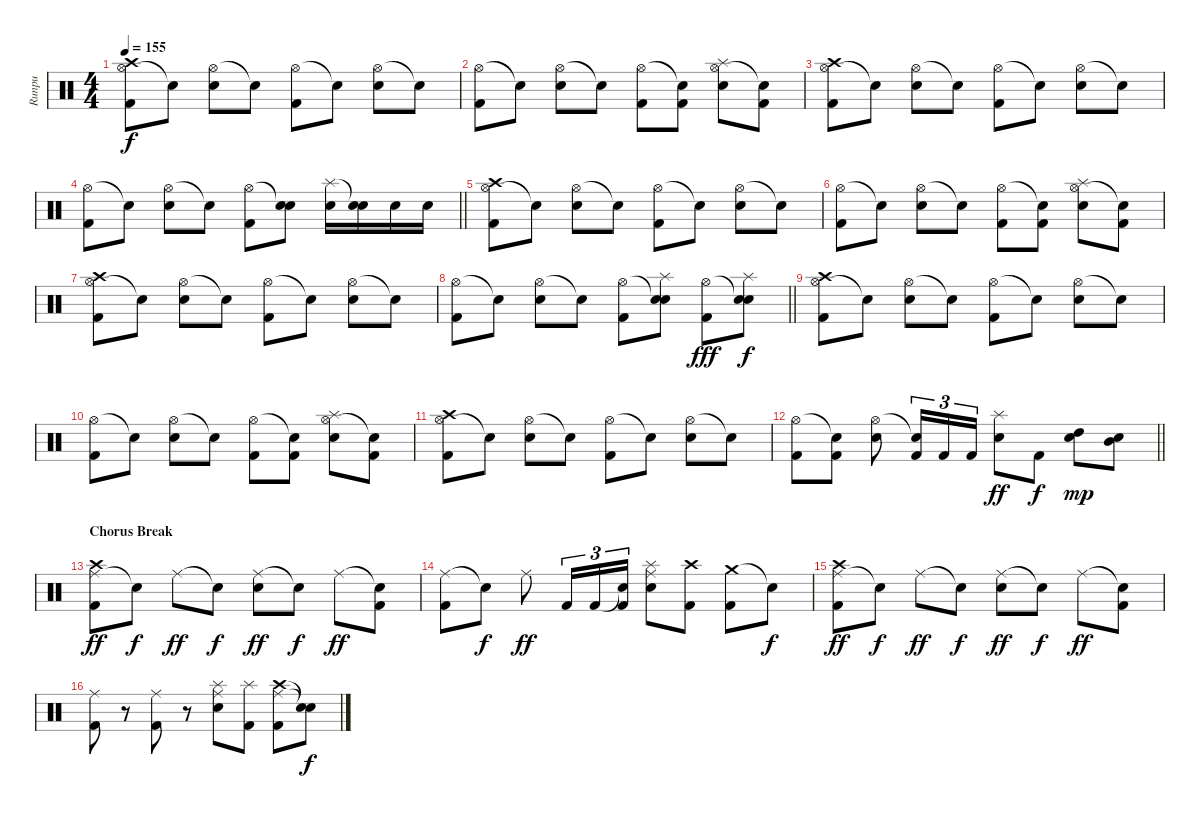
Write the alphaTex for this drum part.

\track ("Runpu" "Runpu") {instrument percussion}
\staff {score}
\articulation defaults
\ts (4 4)
\tempo 155
\clef neutral
\ks c
("Hi-Hat (open)" "Crash high (hit)" "Kick (hit) 2").8{dy f} "Snare (hit)"{t}.8 ("Hi-Hat (open)" "Snare (hit) 2").8 "Snare (hit)"{t}.8 ("Hi-Hat (open)" "Kick (hit) 2").8 "Snare (hit)"{t}.8 ("Hi-Hat (open)" "Snare (hit) 2").8 "Snare (hit)"{t}.8 |
("Hi-Hat (open)" "Kick (hit) 2").8 "Snare (hit)"{t}.8 ("Hi-Hat (open)" "Snare (hit) 2").8 "Snare (hit)"{t}.8 ("Hi-Hat (open)" "Kick (hit) 2").8 ("Snare (hit)"{t} "Kick (hit) 2").8 ("Hi-Hat (open)" "Splash (hit)" "Snare (hit) 2").8 ("Snare (hit)"{t} "Kick (hit) 2").8 |
("Hi-Hat (open)" "Crash high (hit)" "Kick (hit) 2").8 "Snare (hit)"{t}.8 ("Hi-Hat (open)" "Snare (hit) 2").8 "Snare (hit)"{t}.8 ("Hi-Hat (open)" "Kick (hit) 2").8 "Snare (hit)"{t}.8 ("Hi-Hat (open)" "Snare (hit) 2").8 "Snare (hit)"{t}.8 |
\barLineRight lightlight
("Hi-Hat (open)" "Kick (hit) 2").8 "Snare (hit)"{t}.8 ("Hi-Hat (open)" "Snare (hit) 2").8 "Snare (hit)"{t}.8 ("Hi-Hat (open)" "Kick (hit) 2").8 ("Snare (hit)"{t} "Snare (hit) 2").8 ("Splash (hit)" "Snare (hit) 2").16 ("Snare (hit)"{t} "Snare (hit) 2").16 "Snare (hit) 2".16 "Snare (hit) 2".16 |
("Hi-Hat (open)" "Crash high (hit)" "Kick (hit) 2").8 "Snare (hit)"{t}.8 ("Hi-Hat (open)" "Snare (hit) 2").8 "Snare (hit)"{t}.8 ("Hi-Hat (open)" "Kick (hit) 2").8 "Snare (hit)"{t}.8 ("Hi-Hat (open)" "Snare (hit) 2").8 "Snare (hit)"{t}.8 |
("Hi-Hat (open)" "Kick (hit) 2").8 "Snare (hit)"{t}.8 ("Hi-Hat (open)" "Snare (hit) 2").8 "Snare (hit)"{t}.8 ("Hi-Hat (open)" "Kick (hit) 2").8 ("Snare (hit)"{t} "Kick (hit) 2").8 ("Hi-Hat (open)" "Splash (hit)" "Snare (hit) 2").8 ("Snare (hit)"{t} "Kick (hit) 2").8 |
("Hi-Hat (open)" "Crash high (hit)" "Kick (hit) 2").8 "Snare (hit)"{t}.8 ("Hi-Hat (open)" "Snare (hit) 2").8 "Snare (hit)"{t}.8 ("Hi-Hat (open)" "Kick (hit) 2").8 "Snare (hit)"{t}.8 ("Hi-Hat (open)" "Snare (hit) 2").8 "Snare (hit)"{t}.8 |
\barLineRight lightlight
("Hi-Hat (open)" "Kick (hit) 2").8 "Snare (hit)"{t}.8 ("Hi-Hat (open)" "Snare (hit) 2").8 "Snare (hit)"{t}.8 ("Hi-Hat (open)" "Kick (hit) 2").8 ("Snare (hit)"{t} "Splash (hit)" "Snare (hit) 2").8 ("Hi-Hat (open)" "Kick (hit) 2").8{dy fff} ("Snare (hit)"{t} "Splash (hit)" "Snare (hit) 2").8{dy f} |
("Hi-Hat (open)" "Crash high (hit)" "Kick (hit) 2").8 "Snare (hit)"{t}.8 ("Hi-Hat (open)" "Snare (hit) 2").8 "Snare (hit)"{t}.8 ("Hi-Hat (open)" "Kick (hit) 2").8 "Snare (hit)"{t}.8 ("Hi-Hat (open)" "Snare (hit) 2").8 "Snare (hit)"{t}.8 |
("Hi-Hat (open)" "Kick (hit) 2").8 "Snare (hit)"{t}.8 ("Hi-Hat (open)" "Snare (hit) 2").8 "Snare (hit)"{t}.8 ("Hi-Hat (open)" "Kick (hit) 2").8 ("Snare (hit)"{t} "Kick (hit) 2").8 ("Hi-Hat (open)" "Splash (hit)" "Snare (hit) 2").8 ("Snare (hit)"{t} "Kick (hit) 2").8 |
("Hi-Hat (open)" "Crash high (hit)" "Kick (hit) 2").8 "Snare (hit)"{t}.8 ("Hi-Hat (open)" "Snare (hit) 2").8 "Snare (hit)"{t}.8 ("Hi-Hat (open)" "Kick (hit) 2").8 "Snare (hit)"{t}.8 ("Hi-Hat (open)" "Snare (hit) 2").8 "Snare (hit)"{t}.8 |
\barLineRight lightlight
("Hi-Hat (open)" "Kick (hit) 2").8 ("Snare (hit)"{t} "Kick (hit) 2").8 ("Hi-Hat (open)" "Snare (hit) 2").8 ("Snare (hit)"{t} "Kick (hit) 2").16{tu (3 2)} "Kick (hit) 2".16{tu (3 2)} "Kick (hit) 2".16{tu (3 2)} ("Splash (hit)" "Snare (hit) 2").8{dy ff} "Kick (hit) 2".8{dy f} ("High Tom (hit)" "Electric Snare (hit)").8{dy mp} ("Mid Tom (hit)" "Electric Snare (hit)").8 |
\section ("" "Chorus Break")
("Ride (middle)" "Crash high (hit)" "Kick (hit) 2").8{dy ff} "Snare (hit)"{t}.8{dy f} "Ride (middle)".8{dy ff} "Snare (hit)"{t}.8{dy f} ("Ride (middle)" "Snare (hit) 2").8{dy ff} "Snare (hit)"{t}.8{dy f} "Ride (middle)".8{dy ff} ("Snare (hit)"{t} "Kick (hit) 2").8 |
("Ride (middle)" "Kick (hit) 2").8 "Snare (hit)"{t}.8{dy f} "Ride (middle)".8{dy ff} "Kick (hit) 2".16{tu (3 2)} "Kick (hit) 2".16{tu (3 2)} ("Snare (hit)"{t} "Kick (hit) 2").16{tu (3 2)} ("Ride (middle)" "Splash (hit)" "Snare (hit) 2").8 ("Crash high (hit)" "Kick (hit) 2").8 ("Crash medium (hit)" "Kick (hit) 2").8 "Snare (hit)"{t}.8{dy f} |
("Ride (middle)" "Crash high (hit)" "Kick (hit) 2").8{dy ff} "Snare (hit)"{t}.8{dy f} "Ride (middle)".8{dy ff} "Snare (hit)"{t}.8{dy f} ("Ride (middle)" "Snare (hit) 2").8{dy ff} "Snare (hit)"{t}.8{dy f} "Ride (middle)".8{dy ff} ("Snare (hit)"{t} "Kick (hit) 2").8 |
("Ride (middle)" "Kick (hit) 2").8 r.8 ("Ride (middle)" "Kick (hit) 2").8 r.8 ("Ride (middle)" "Splash (hit)" "Snare (hit) 2").8 ("Splash (hit)" "Kick (hit) 2").8 ("Ride (middle)" "Crash high (hit)" "Kick (hit) 2").8 ("Snare (hit)"{t} "Snare (hit)"{t}).8{dy f}
